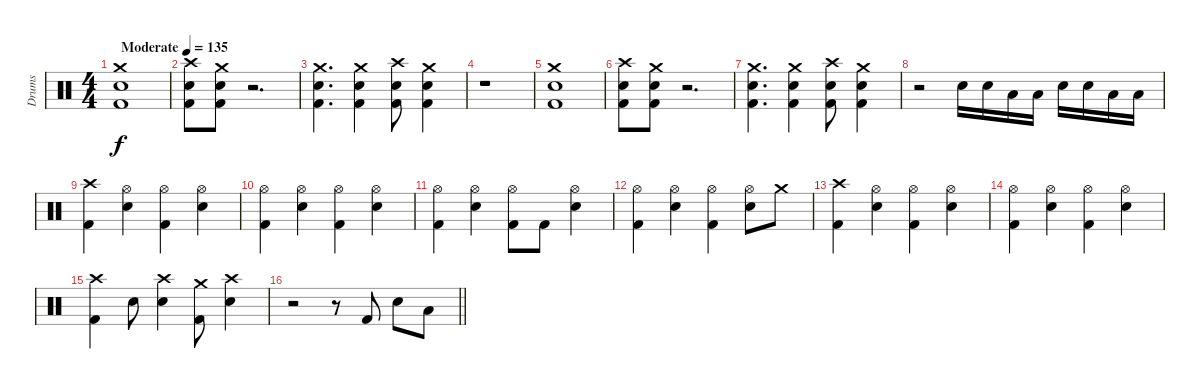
\track ("Drums" "Drums") {instrument percussion}
\staff {score}
\articulation defaults
\ts (4 4)
\tempo (135 "Moderate")
\clef neutral
\ks c
("Crash medium (hit)" "Snare (hit) 2" "Kick (hit) 2").1{dy f} |
("Crash high (hit)" "Snare (hit) 2" "Kick (hit) 2").8 ("Crash medium (hit)" "Snare (hit) 2" "Kick (hit) 2").8 r.2{d} |
("Crash medium (hit)" "Snare (hit) 2" "Kick (hit) 2").4{d} ("Crash medium (hit)" "Snare (hit) 2" "Kick (hit) 2").4 ("Crash high (hit)" "Snare (hit) 2" "Kick (hit) 2").8 ("Crash medium (hit)" "Snare (hit) 2" "Kick (hit) 2").4 |
r.1 |
("Crash medium (hit)" "Snare (hit) 2" "Kick (hit) 2").1 |
("Crash high (hit)" "Snare (hit) 2" "Kick (hit) 2").8 ("Crash medium (hit)" "Snare (hit) 2" "Kick (hit) 2").8 r.2{d} |
("Crash medium (hit)" "Snare (hit) 2" "Kick (hit) 2").4{d} ("Crash medium (hit)" "Snare (hit) 2" "Kick (hit) 2").4 ("Crash high (hit)" "Snare (hit) 2" "Kick (hit) 2").8 ("Crash medium (hit)" "Snare (hit) 2" "Kick (hit) 2").4 |
r.2 "Snare (hit) 2".16 "Snare (hit) 2".16 "Low Tom (hit)".16 "Low Tom (hit)".16 "Snare (hit) 2".16 "Snare (hit) 2".16 "Low Tom (hit)".16 "Low Tom (hit)".16 |
("Crash high (hit)" "Kick (hit) 2").4 ("Hi-Hat (open)" "Snare (hit) 2").4 ("Hi-Hat (open)" "Kick (hit) 2").4 ("Hi-Hat (open)" "Snare (hit) 2").4 |
("Hi-Hat (open)" "Kick (hit) 2").4 ("Hi-Hat (open)" "Snare (hit) 2").4 ("Hi-Hat (open)" "Kick (hit) 2").4 ("Hi-Hat (open)" "Snare (hit) 2").4 |
("Hi-Hat (open)" "Kick (hit) 2").4 ("Hi-Hat (open)" "Snare (hit) 2").4 ("Hi-Hat (open)" "Kick (hit) 2").8 "Kick (hit) 2".8 ("Hi-Hat (open)" "Snare (hit) 2").4 |
("Hi-Hat (open)" "Kick (hit) 2").4 ("Hi-Hat (open)" "Snare (hit) 2").4 ("Hi-Hat (open)" "Kick (hit) 2").4 ("Hi-Hat (open)" "Snare (hit) 2").8 "Crash medium (hit)".8 |
("Crash high (hit)" "Kick (hit) 2").4 ("Hi-Hat (open)" "Snare (hit) 2").4 ("Hi-Hat (open)" "Kick (hit) 2").4 ("Hi-Hat (open)" "Snare (hit) 2").4 |
("Hi-Hat (open)" "Kick (hit) 2").4 ("Hi-Hat (open)" "Snare (hit) 2").4 ("Hi-Hat (open)" "Kick (hit) 2").4 ("Hi-Hat (open)" "Snare (hit) 2").4 |
("Crash high (hit)" "Kick (hit) 2").4 "Snare (hit) 2".8 ("Crash high (hit)" "Snare (hit) 2").4 ("Crash medium (hit)" "Kick (hit) 2").8 ("Crash high (hit)" "Snare (hit) 2").4 |
\barLineRight lightlight
r.2 r.8 "Kick (hit) 2".8 "Snare (hit) 2".8 "Low Tom (hit)".8
